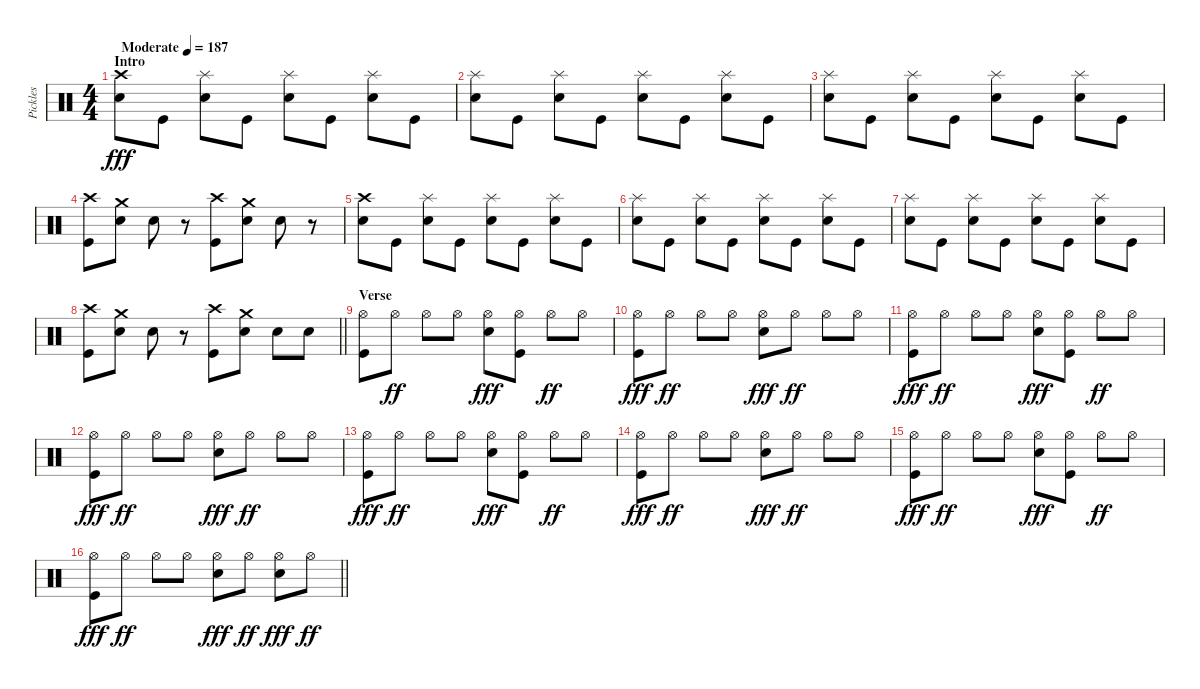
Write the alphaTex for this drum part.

\track ("Pickles" "Pickles") {instrument percussion}
\staff {score}
\articulation defaults
\ts (4 4)
\section ("" "Intro")
\tempo (187 "Moderate")
\clef neutral
\ks c
("Crash high (hit)" "Snare (hit) 2").8{dy fff} "Kick (hit)".8 ("Splash (hit)" "Snare (hit) 2").8 "Kick (hit)".8 ("Splash (hit)" "Snare (hit) 2").8 "Kick (hit)".8 ("Splash (hit)" "Snare (hit) 2").8 "Kick (hit)".8 |
("Splash (hit)" "Snare (hit) 2").8 "Kick (hit)".8 ("Splash (hit)" "Snare (hit) 2").8 "Kick (hit)".8 ("Splash (hit)" "Snare (hit) 2").8 "Kick (hit)".8 ("Splash (hit)" "Snare (hit) 2").8 "Kick (hit)".8 |
("Splash (hit)" "Snare (hit) 2").8 "Kick (hit)".8 ("Splash (hit)" "Snare (hit) 2").8 "Kick (hit)".8 ("Splash (hit)" "Snare (hit) 2").8 "Kick (hit)".8 ("Splash (hit)" "Snare (hit) 2").8 "Kick (hit)".8 |
("Crash high (hit)" "Kick (hit)").8 ("Crash medium (hit)" "Snare (hit) 2").8 "Snare (hit) 2".8 r.8 ("Crash high (hit)" "Kick (hit)").8 ("Crash medium (hit)" "Snare (hit) 2").8 "Snare (hit) 2".8 r.8 |
("Crash high (hit)" "Snare (hit) 2").8 "Kick (hit)".8 ("Splash (hit)" "Snare (hit) 2").8 "Kick (hit)".8 ("Splash (hit)" "Snare (hit) 2").8 "Kick (hit)".8 ("Splash (hit)" "Snare (hit) 2").8 "Kick (hit)".8 |
("Splash (hit)" "Snare (hit) 2").8 "Kick (hit)".8 ("Splash (hit)" "Snare (hit) 2").8 "Kick (hit)".8 ("Splash (hit)" "Snare (hit) 2").8 "Kick (hit)".8 ("Splash (hit)" "Snare (hit) 2").8 "Kick (hit)".8 |
("Splash (hit)" "Snare (hit) 2").8 "Kick (hit)".8 ("Splash (hit)" "Snare (hit) 2").8 "Kick (hit)".8 ("Splash (hit)" "Snare (hit) 2").8 "Kick (hit)".8 ("Splash (hit)" "Snare (hit) 2").8 "Kick (hit)".8 |
\barLineRight lightlight
("Crash high (hit)" "Kick (hit)").8 ("Crash medium (hit)" "Snare (hit) 2").8 "Snare (hit) 2".8 r.8 ("Crash high (hit)" "Kick (hit)").8 ("Crash medium (hit)" "Snare (hit) 2").8 "Snare (hit) 2".8 "Snare (hit) 2".8 |
\section ("" "Verse")
("Hi-Hat (open)" "Kick (hit)").8 "Hi-Hat (open)".8{dy ff} "Hi-Hat (open)".8 "Hi-Hat (open)".8 ("Hi-Hat (open)" "Snare (hit) 2").8{dy fff} ("Hi-Hat (open)" "Kick (hit)").8 "Hi-Hat (open)".8{dy ff} "Hi-Hat (open)".8 |
("Hi-Hat (open)" "Kick (hit)").8{dy fff} "Hi-Hat (open)".8{dy ff} "Hi-Hat (open)".8 "Hi-Hat (open)".8 ("Hi-Hat (open)" "Snare (hit) 2").8{dy fff} "Hi-Hat (open)".8{dy ff} "Hi-Hat (open)".8 "Hi-Hat (open)".8 |
("Hi-Hat (open)" "Kick (hit)").8{dy fff} "Hi-Hat (open)".8{dy ff} "Hi-Hat (open)".8 "Hi-Hat (open)".8 ("Hi-Hat (open)" "Snare (hit) 2").8{dy fff} ("Hi-Hat (open)" "Kick (hit)").8 "Hi-Hat (open)".8{dy ff} "Hi-Hat (open)".8 |
("Hi-Hat (open)" "Kick (hit)").8{dy fff} "Hi-Hat (open)".8{dy ff} "Hi-Hat (open)".8 "Hi-Hat (open)".8 ("Hi-Hat (open)" "Snare (hit) 2").8{dy fff} "Hi-Hat (open)".8{dy ff} "Hi-Hat (open)".8 "Hi-Hat (open)".8 |
("Hi-Hat (open)" "Kick (hit)").8{dy fff} "Hi-Hat (open)".8{dy ff} "Hi-Hat (open)".8 "Hi-Hat (open)".8 ("Hi-Hat (open)" "Snare (hit) 2").8{dy fff} ("Hi-Hat (open)" "Kick (hit)").8 "Hi-Hat (open)".8{dy ff} "Hi-Hat (open)".8 |
("Hi-Hat (open)" "Kick (hit)").8{dy fff} "Hi-Hat (open)".8{dy ff} "Hi-Hat (open)".8 "Hi-Hat (open)".8 ("Hi-Hat (open)" "Snare (hit) 2").8{dy fff} "Hi-Hat (open)".8{dy ff} "Hi-Hat (open)".8 "Hi-Hat (open)".8 |
("Hi-Hat (open)" "Kick (hit)").8{dy fff} "Hi-Hat (open)".8{dy ff} "Hi-Hat (open)".8 "Hi-Hat (open)".8 ("Hi-Hat (open)" "Snare (hit) 2").8{dy fff} ("Hi-Hat (open)" "Kick (hit)").8 "Hi-Hat (open)".8{dy ff} "Hi-Hat (open)".8 |
\barLineRight lightlight
("Hi-Hat (open)" "Kick (hit)").8{dy fff} "Hi-Hat (open)".8{dy ff} "Hi-Hat (open)".8 "Hi-Hat (open)".8 ("Hi-Hat (open)" "Snare (hit) 2").8{dy fff} "Hi-Hat (open)".8{dy ff} ("Hi-Hat (open)" "Snare (hit) 2").8{dy fff} "Hi-Hat (open)".8{dy ff}
